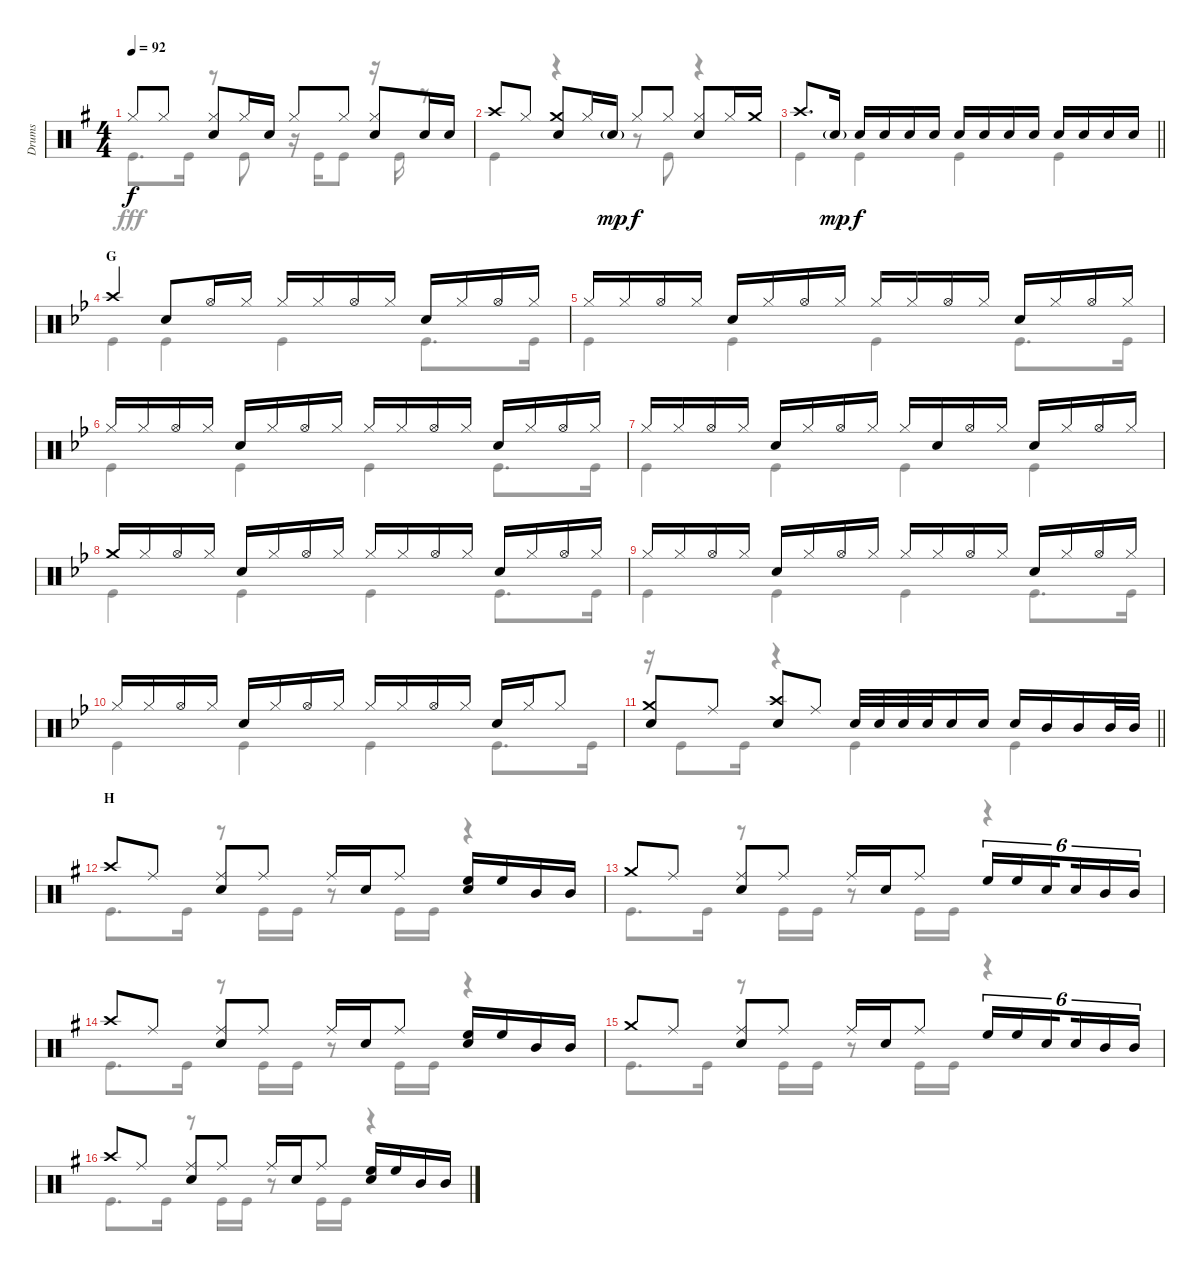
\track ("Drums" "Drums") {instrument percussion}
\staff {score}
\articulation defaults
\voice
\ts (4 4)
\tempo 92
\clef neutral
\ks g "Hi-Hat (closed)".8{dy f} "Hi-Hat (closed)".8
("Hi-Hat (closed)" "Snare (hit) 2").8 "Hi-Hat (closed)".16 "Snare (hit) 2".16 "Hi-Hat (closed)".8 "Hi-Hat (closed)".8 ("Hi-Hat (closed)" "Snare (hit) 2").8 "Snare (hit) 2".16 "Snare (hit) 2".16 |
"Crash high (hit)".8 "Hi-Hat (closed)".8 ("Crash medium (hit)" "Snare (hit) 2").8 "Hi-Hat (closed)".16 "Snare (hit) 2"{g}.16{dy mp} "Hi-Hat (closed)".8{dy f} "Hi-Hat (closed)".8 ("Hi-Hat (closed)" "Snare (hit) 2").8 "Hi-Hat (closed)".16 "Crash medium (hit)".16 |
\barLineRight lightlight "Crash high (hit)".8{d} "Snare (hit) 2"{g}.16{dy mp} "Snare (hit) 2".16{dy f} "Snare (hit) 2".16 "Snare (hit) 2".16 "Snare (hit) 2".16 "Snare (hit) 2".16 "Snare (hit) 2".16 "Snare (hit) 2".16 "Snare (hit) 2".16 "Snare (hit) 2".16 "Snare (hit) 2".16 "Snare (hit) 2".16 "Snare (hit) 2".16
|
\section ("" "G")
\ks bb "Crash high (hit)".4 "Snare (hit) 2".8 "Hi-Hat (open)".16 "Hi-Hat (closed)".16 "Hi-Hat (closed)".16 "Hi-Hat (closed)".16 "Hi-Hat (open)".16 "Hi-Hat (closed)".16 "Snare (hit) 2".16 "Hi-Hat (closed)".16 "Hi-Hat (open)".16 "Hi-Hat (closed)".16
|
"Hi-Hat (closed)".16 "Hi-Hat (closed)".16 "Hi-Hat (open)".16 "Hi-Hat (closed)".16 "Snare (hit) 2".16 "Hi-Hat (closed)".16 "Hi-Hat (open)".16 "Hi-Hat (closed)".16 "Hi-Hat (closed)".16 "Hi-Hat (closed)".16 "Hi-Hat (open)".16 "Hi-Hat (closed)".16 "Snare (hit) 2".16 "Hi-Hat (closed)".16 "Hi-Hat (open)".16 "Hi-Hat (closed)".16 |
"Hi-Hat (closed)".16 "Hi-Hat (closed)".16 "Hi-Hat (open)".16 "Hi-Hat (closed)".16 "Snare (hit) 2".16 "Hi-Hat (closed)".16 "Hi-Hat (open)".16 "Hi-Hat (closed)".16 "Hi-Hat (closed)".16 "Hi-Hat (closed)".16 "Hi-Hat (open)".16 "Hi-Hat (closed)".16 "Snare (hit) 2".16 "Hi-Hat (closed)".16 "Hi-Hat (open)".16 "Hi-Hat (closed)".16 |
"Hi-Hat (closed)".16 "Hi-Hat (closed)".16 "Hi-Hat (open)".16 "Hi-Hat (closed)".16 "Snare (hit) 2".16 "Hi-Hat (closed)".16 "Hi-Hat (open)".16 "Hi-Hat (closed)".16 "Hi-Hat (closed)".16 "Snare (hit) 2".16 "Hi-Hat (open)".16 "Hi-Hat (closed)".16 "Snare (hit) 2".16 "Hi-Hat (closed)".16 "Hi-Hat (open)".16 "Hi-Hat (closed)".16 |
"Crash medium (hit)".16 "Hi-Hat (closed)".16 "Hi-Hat (open)".16 "Hi-Hat (closed)".16 "Snare (hit) 2".16 "Hi-Hat (closed)".16 "Hi-Hat (open)".16 "Hi-Hat (closed)".16 "Hi-Hat (closed)".16 "Hi-Hat (closed)".16 "Hi-Hat (open)".16 "Hi-Hat (closed)".16 "Snare (hit) 2".16 "Hi-Hat (closed)".16 "Hi-Hat (open)".16 "Hi-Hat (closed)".16 |
"Hi-Hat (closed)".16 "Hi-Hat (closed)".16 "Hi-Hat (open)".16 "Hi-Hat (closed)".16 "Snare (hit) 2".16 "Hi-Hat (closed)".16 "Hi-Hat (open)".16 "Hi-Hat (closed)".16 "Hi-Hat (closed)".16 "Hi-Hat (closed)".16 "Hi-Hat (open)".16 "Hi-Hat (closed)".16 "Snare (hit) 2".16 "Hi-Hat (closed)".16 "Hi-Hat (open)".16 "Hi-Hat (closed)".16 |
"Hi-Hat (closed)".16 "Hi-Hat (closed)".16 "Hi-Hat (open)".16 "Hi-Hat (closed)".16 "Snare (hit) 2".16 "Hi-Hat (closed)".16 "Hi-Hat (open)".16 "Hi-Hat (closed)".16 "Hi-Hat (closed)".16 "Hi-Hat (closed)".16 "Hi-Hat (open)".16 "Hi-Hat (closed)".16 "Snare (hit) 2".16 "Hi-Hat (closed)".16 "Hi-Hat (closed)".8 |
\barLineRight lightlight
("Crash medium (hit)" "Snare (hit) 2").8 "Ride (middle)".8 ("Crash high (hit)" "Snare (hit) 2").8 "Ride (middle)".8 "Snare (hit) 2".32 "Snare (hit) 2".32 "Snare (hit) 2".32 "Snare (hit) 2".32 "Snare (hit) 2".16 "Snare (hit) 2".16 "Snare (hit) 2".16 "Mid Tom (hit)".16 "Mid Tom (hit)".16 "Mid Tom (hit)".32 "Mid Tom (hit)".32 |
\section ("" "H")
\ks g "Crash high (hit)".8 "Ride (middle)".8
("Ride (middle)" "Snare (hit) 2").8 "Ride (middle)".8 "Ride (middle)".16 "Snare (hit) 2".16 "Ride (middle)".8 ("High Floor Tom (hit)" "Snare (hit) 2").16 "High Floor Tom (hit)".16 "Mid Tom (hit)".16 "Mid Tom (hit)".16 |
"Crash medium (hit)".8 "Ride (middle)".8 ("Snare (hit) 2" "Ride (middle)").8 "Ride (middle)".8 "Ride (middle)".16 "Snare (hit) 2".16 "Ride (middle)".8 "High Floor Tom (hit)".16{tu (6 4)} "High Floor Tom (hit)".16{tu (6 4)} "Snare (hit) 2".16{tu (6 4) beam splitsecondary} "Snare (hit) 2".16{tu (6 4)} "Mid Tom (hit)".16{tu (6 4)} "Mid Tom (hit)".16{tu (6 4)} |
"Crash high (hit)".8 "Ride (middle)".8 ("Ride (middle)" "Snare (hit) 2").8 "Ride (middle)".8 "Ride (middle)".16 "Snare (hit) 2".16 "Ride (middle)".8 ("High Floor Tom (hit)" "Snare (hit) 2").16 "High Floor Tom (hit)".16 "Mid Tom (hit)".16 "Mid Tom (hit)".16 |
"Crash medium (hit)".8 "Ride (middle)".8 ("Snare (hit) 2" "Ride (middle)").8 "Ride (middle)".8 "Ride (middle)".16 "Snare (hit) 2".16 "Ride (middle)".8 "High Floor Tom (hit)".16{tu (6 4)} "High Floor Tom (hit)".16{tu (6 4)} "Snare (hit) 2".16{tu (6 4) beam splitsecondary} "Snare (hit) 2".16{tu (6 4)} "Mid Tom (hit)".16{tu (6 4)} "Mid Tom (hit)".16{tu (6 4)} |
"Crash high (hit)".8 "Ride (middle)".8 ("Ride (middle)" "Snare (hit) 2").8 "Ride (middle)".8 "Ride (middle)".16 "Snare (hit) 2".16 "Ride (middle)".8 ("High Floor Tom (hit)" "Snare (hit) 2").16 "High Floor Tom (hit)".16 "Mid Tom (hit)".16 "Mid Tom (hit)".16
\voice
\clef neutral
\ottava regular
\simile none
\ks g "Kick (hit)".8{d dy fff} "Kick (hit)".16
r.8 "Kick (hit)".8 r.16 "Kick (hit)".16 "Kick (hit)".8 r.16 "Kick (hit)".16 r.8 |
"Kick (hit)".4 r.4 r.8 "Kick (hit)".8 r.4 |
\barLineRight lightlight "Kick (hit)".4 "Kick (hit)".4 "Kick (hit)".4 "Kick (hit)".4
|
\ks bb "Kick (hit)".4 "Kick (hit)".4 "Kick (hit)".4 "Kick (hit)".8{d} "Kick (hit)".16
|
"Kick (hit)".4 "Kick (hit)".4 "Kick (hit)".4 "Kick (hit)".8{d} "Kick (hit)".16 |
"Kick (hit)".4 "Kick (hit)".4 "Kick (hit)".4 "Kick (hit)".8{d} "Kick (hit)".16 |
"Kick (hit)".4 "Kick (hit)".4 "Kick (hit)".4 "Kick (hit)".4 |
"Kick (hit)".4 "Kick (hit)".4 "Kick (hit)".4 "Kick (hit)".8{d} "Kick (hit)".16 |
"Kick (hit)".4 "Kick (hit)".4 "Kick (hit)".4 "Kick (hit)".8{d} "Kick (hit)".16 |
"Kick (hit)".4 "Kick (hit)".4 "Kick (hit)".4 "Kick (hit)".8{d} "Kick (hit)".16 |
\barLineRight lightlight
r.16 "Kick (hit)".8 "Kick (hit)".16 r.4 "Kick (hit)".4 "Kick (hit)".4 |
\ks g "Kick (hit)".8{d} "Kick (hit)".16
r.8 "Kick (hit)".16 "Kick (hit)".16 r.8 "Kick (hit)".16 "Kick (hit)".16 r.4 |
"Kick (hit)".8{d} "Kick (hit)".16 r.8 "Kick (hit)".16 "Kick (hit)".16 r.8 "Kick (hit)".16 "Kick (hit)".16 r.4 |
"Kick (hit)".8{d} "Kick (hit)".16 r.8 "Kick (hit)".16 "Kick (hit)".16 r.8 "Kick (hit)".16 "Kick (hit)".16 r.4 |
"Kick (hit)".8{d} "Kick (hit)".16 r.8 "Kick (hit)".16 "Kick (hit)".16 r.8 "Kick (hit)".16 "Kick (hit)".16 r.4 |
"Kick (hit)".8{d} "Kick (hit)".16 r.8 "Kick (hit)".16 "Kick (hit)".16 r.8 "Kick (hit)".16 "Kick (hit)".16 r.4
